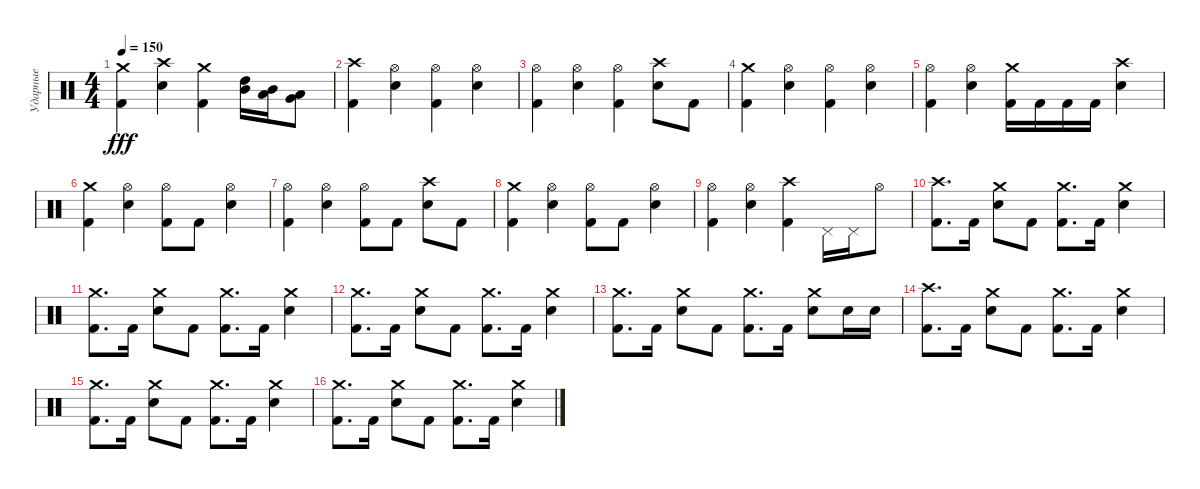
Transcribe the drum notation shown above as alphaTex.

\track ("Ударные" "Ударные") {instrument percussion}
\staff {score}
\articulation defaults
\ts (4 4)
\tempo 150
\clef neutral
\ks c
("Crash medium (hit)" "Kick (hit) 2").4{dy fff} ("Crash high (hit)" "Electric Snare (hit)").4 ("Crash medium (hit)" "Kick (hit) 2").4 ("High Tom (hit)" "Mid Tom (hit)").16 ("Mid Tom (hit)" "Low Tom (hit)").16 ("Low Tom (hit)" "Very Low Tom (hit)").8 |
("Crash high (hit)" "Kick (hit) 2").4 ("Hi-Hat (open)" "Electric Snare (hit)").4 ("Hi-Hat (open)" "Kick (hit) 2").4 ("Hi-Hat (open)" "Electric Snare (hit)").4 |
("Hi-Hat (open)" "Kick (hit) 2").4 ("Hi-Hat (open)" "Electric Snare (hit)").4 ("Hi-Hat (open)" "Kick (hit) 2").4 ("Crash high (hit)" "Electric Snare (hit)").8 "Kick (hit) 2".8 |
("Crash medium (hit)" "Kick (hit) 2").4 ("Hi-Hat (open)" "Electric Snare (hit)").4 ("Hi-Hat (open)" "Kick (hit) 2").4 ("Hi-Hat (open)" "Electric Snare (hit)").4 |
("Hi-Hat (open)" "Kick (hit) 2").4 ("Hi-Hat (open)" "Electric Snare (hit)").4 ("Crash medium (hit)" "Kick (hit) 2").16 "Kick (hit) 2".16 "Kick (hit) 2".16 "Kick (hit) 2".16 ("Crash high (hit)" "Electric Snare (hit)").4 |
("Crash medium (hit)" "Kick (hit) 2").4 ("Hi-Hat (open)" "Electric Snare (hit)").4 ("Hi-Hat (open)" "Kick (hit) 2").8 "Kick (hit) 2".8 ("Hi-Hat (open)" "Electric Snare (hit)").4 |
("Hi-Hat (open)" "Kick (hit) 2").4 ("Hi-Hat (open)" "Electric Snare (hit)").4 ("Hi-Hat (open)" "Kick (hit) 2").8 "Kick (hit) 2".8 ("Crash high (hit)" "Electric Snare (hit)").8 "Kick (hit) 2".8 |
("Crash medium (hit)" "Kick (hit) 2").4 ("Hi-Hat (open)" "Electric Snare (hit)").4 ("Hi-Hat (open)" "Kick (hit) 2").8 "Kick (hit) 2".8 ("Hi-Hat (open)" "Electric Snare (hit)").4 |
("Hi-Hat (open)" "Kick (hit) 2").4 ("Hi-Hat (open)" "Electric Snare (hit)").4 ("Crash high (hit)" "Kick (hit) 2").4 "Pedal Hi-Hat (hit)".16 "Pedal Hi-Hat (hit)".16 "Hi-Hat (open)".8 |
("Crash high (hit)" "Kick (hit) 2").8{d} "Kick (hit) 2".16 ("Crash medium (hit)" "Electric Snare (hit)").8 "Kick (hit) 2".8 ("Crash medium (hit)" "Kick (hit) 2").8{d} "Kick (hit) 2".16 ("Crash medium (hit)" "Electric Snare (hit)").4 |
("Crash medium (hit)" "Kick (hit) 2").8{d} "Kick (hit) 2".16 ("Crash medium (hit)" "Electric Snare (hit)").8 "Kick (hit) 2".8 ("Crash medium (hit)" "Kick (hit) 2").8{d} "Kick (hit) 2".16 ("Crash medium (hit)" "Electric Snare (hit)").4 |
("Crash medium (hit)" "Kick (hit) 2").8{d} "Kick (hit) 2".16 ("Crash medium (hit)" "Electric Snare (hit)").8 "Kick (hit) 2".8 ("Crash medium (hit)" "Kick (hit) 2").8{d} "Kick (hit) 2".16 ("Crash medium (hit)" "Electric Snare (hit)").4 |
("Crash medium (hit)" "Kick (hit) 2").8{d} "Kick (hit) 2".16 ("Crash medium (hit)" "Electric Snare (hit)").8 "Kick (hit) 2".8 ("Crash medium (hit)" "Kick (hit) 2").8{d} "Kick (hit) 2".16 ("Crash medium (hit)" "Electric Snare (hit)").8 "Electric Snare (hit)".16 "Electric Snare (hit)".16 |
("Crash high (hit)" "Kick (hit) 2").8{d} "Kick (hit) 2".16 ("Crash medium (hit)" "Electric Snare (hit)").8 "Kick (hit) 2".8 ("Crash medium (hit)" "Kick (hit) 2").8{d} "Kick (hit) 2".16 ("Crash medium (hit)" "Electric Snare (hit)").4 |
("Crash medium (hit)" "Kick (hit) 2").8{d} "Kick (hit) 2".16 ("Crash medium (hit)" "Electric Snare (hit)").8 "Kick (hit) 2".8 ("Crash medium (hit)" "Kick (hit) 2").8{d} "Kick (hit) 2".16 ("Crash medium (hit)" "Electric Snare (hit)").4 |
("Crash medium (hit)" "Kick (hit) 2").8{d} "Kick (hit) 2".16 ("Crash medium (hit)" "Electric Snare (hit)").8 "Kick (hit) 2".8 ("Crash medium (hit)" "Kick (hit) 2").8{d} "Kick (hit) 2".16 ("Crash medium (hit)" "Electric Snare (hit)").4
